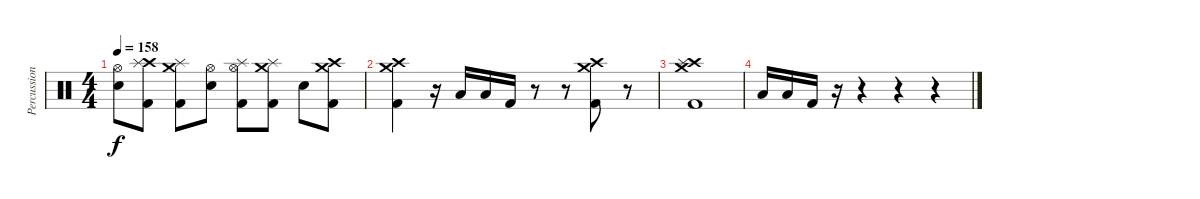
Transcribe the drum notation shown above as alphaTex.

\track ("Percussion" "Percussion") {instrument percussion}
\staff {score}
\articulation defaults
\ts (4 4)
\tempo 158
\clef neutral
\ks c
("Hi-Hat (open)" "Snare (hit) 2").8{dy f} ("Crash high (hit)" "Splash (hit)" "Kick (hit) 2").8 ("Crash medium (hit)" "Splash (hit)" "Kick (hit) 2").8 ("Hi-Hat (open)" "Snare (hit) 2").8 ("Hi-Hat (open)" "Splash (hit)" "Kick (hit) 2").8 ("Crash medium (hit)" "Splash (hit)" "Kick (hit) 2").8 "Snare (hit) 2".8 ("Crash high (hit)" "Crash medium (hit)" "Kick (hit) 2").8 |
("Crash high (hit)" "Crash medium (hit)" "Kick (hit) 2").4 r.16 "Low Tom (hit)".16 "Low Tom (hit)".16 "Kick (hit) 2".16 r.8 r.8 ("Crash high (hit)" "Crash medium (hit)" "Kick (hit) 2").8 r.8 |
("Crash high (hit)" "Splash (hit)" "Crash medium (hit)" "Kick (hit) 2").1 |
"Low Tom (hit)".16 "Low Tom (hit)".16 "Kick (hit) 2".16 r.16 r.4 r.4 r.4
